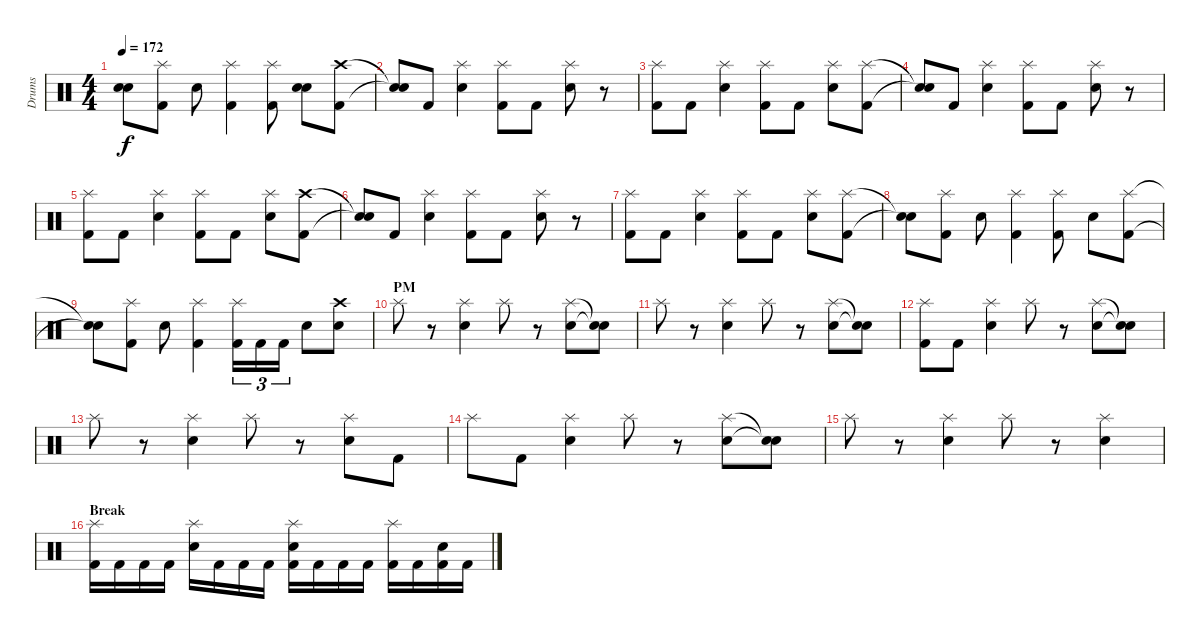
\track ("Drums" "Drums") {instrument percussion}
\staff {score}
\articulation defaults
\ts (4 4)
\tempo 172
\clef neutral
\ks c
("Snare (hit)"{t} "Snare (hit)"{t}).8{dy f} ("Splash (hit)" "Kick (hit) 2").8 "Electric Snare (hit)".8 ("Splash (hit)" "Kick (hit) 2").4 ("Splash (hit)" "Kick (hit) 2").8 ("Electric Snare (hit)" "Electric Snare (hit)").8 ("Crash high (hit)" "Kick (hit) 2").8 |
("Snare (hit)"{t} "Snare (hit)"{t}).8 "Kick (hit) 2".8 ("Splash (hit)" "Electric Snare (hit)").4 ("Splash (hit)" "Kick (hit) 2").8 "Kick (hit) 2".8 ("Splash (hit)" "Electric Snare (hit)").8 r.8 |
("Splash (hit)" "Kick (hit) 2").8 "Kick (hit) 2".8 ("Splash (hit)" "Electric Snare (hit)").4 ("Splash (hit)" "Kick (hit) 2").8 "Kick (hit) 2".8 ("Splash (hit)" "Electric Snare (hit)").8 ("Splash (hit)" "Kick (hit) 2").8 |
("Snare (hit)"{t} "Snare (hit)"{t}).8 "Kick (hit) 2".8 ("Splash (hit)" "Electric Snare (hit)").4 ("Splash (hit)" "Kick (hit) 2").8 "Kick (hit) 2".8 ("Splash (hit)" "Electric Snare (hit)").8 r.8 |
("Splash (hit)" "Kick (hit) 2").8 "Kick (hit) 2".8 ("Splash (hit)" "Electric Snare (hit)").4 ("Splash (hit)" "Kick (hit) 2").8 "Kick (hit) 2".8 ("Splash (hit)" "Electric Snare (hit)").8 ("Crash high (hit)" "Kick (hit) 2").8 |
("Snare (hit)"{t} "Snare (hit)"{t}).8 "Kick (hit) 2".8 ("Splash (hit)" "Electric Snare (hit)").4 ("Splash (hit)" "Kick (hit) 2").8 "Kick (hit) 2".8 ("Splash (hit)" "Electric Snare (hit)").8 r.8 |
("Splash (hit)" "Kick (hit) 2").8 "Kick (hit) 2".8 ("Splash (hit)" "Electric Snare (hit)").4 ("Splash (hit)" "Kick (hit) 2").8 "Kick (hit) 2".8 ("Splash (hit)" "Electric Snare (hit)").8 ("Splash (hit)" "Kick (hit) 2").8 |
("Snare (hit)"{t} "Snare (hit)"{t}).8 ("Splash (hit)" "Kick (hit) 2").8 "Electric Snare (hit)".8 ("Splash (hit)" "Kick (hit) 2").4 ("Splash (hit)" "Kick (hit) 2").8 "Electric Snare (hit)".8 ("Splash (hit)" "Kick (hit) 2").8 |
("Snare (hit)"{t} "Snare (hit)"{t}).8 ("Splash (hit)" "Kick (hit) 2").8 "Electric Snare (hit)".8 ("Splash (hit)" "Kick (hit) 2").4 ("Splash (hit)" "Kick (hit) 2").16{tu (3 2)} "Kick (hit) 2".16{tu (3 2)} "Kick (hit) 2".16{tu (3 2)} "Electric Snare (hit)".8 ("Crash high (hit)" "Electric Snare (hit)").8 |
\section ("" "PM")
"Splash (hit)".8 r.8 ("Splash (hit)" "Electric Snare (hit)").4 "Splash (hit)".8 r.8 ("Splash (hit)" "Electric Snare (hit)").8 ("Snare (hit)"{t} "Snare (hit)"{t}).8 |
"Splash (hit)".8 r.8 ("Splash (hit)" "Electric Snare (hit)").4 "Splash (hit)".8 r.8 ("Splash (hit)" "Electric Snare (hit)").8 ("Snare (hit)"{t} "Snare (hit)"{t}).8 |
("Splash (hit)" "Kick (hit) 2").8 "Kick (hit) 2".8 ("Splash (hit)" "Electric Snare (hit)").4 "Splash (hit)".8 r.8 ("Splash (hit)" "Electric Snare (hit)").8 ("Snare (hit)"{t} "Snare (hit)"{t}).8 |
"Splash (hit)".8 r.8 ("Splash (hit)" "Electric Snare (hit)").4 "Splash (hit)".8 r.8 ("Splash (hit)" "Electric Snare (hit)").8 "Kick (hit) 2".8 |
"Splash (hit)".8 "Kick (hit) 2".8 ("Splash (hit)" "Electric Snare (hit)").4 "Splash (hit)".8 r.8 ("Splash (hit)" "Electric Snare (hit)").8 ("Snare (hit)"{t} "Snare (hit)"{t}).8 |
"Splash (hit)".8 r.8 ("Splash (hit)" "Electric Snare (hit)").4 "Splash (hit)".8 r.8 ("Splash (hit)" "Electric Snare (hit)").4 |
\section ("" "Break")
("Splash (hit)" "Kick (hit) 2").16 "Kick (hit) 2".16 "Kick (hit) 2".16 "Kick (hit) 2".16 ("Splash (hit)" "Electric Snare (hit)").16 "Kick (hit) 2".16 "Kick (hit) 2".16 "Kick (hit) 2".16 ("Splash (hit)" "Electric Snare (hit)" "Kick (hit) 2").16 "Kick (hit) 2".16 "Kick (hit) 2".16 "Kick (hit) 2".16 ("Splash (hit)" "Kick (hit) 2").16 "Kick (hit) 2".16 ("Electric Snare (hit)" "Kick (hit) 2").16 "Kick (hit) 2".16
